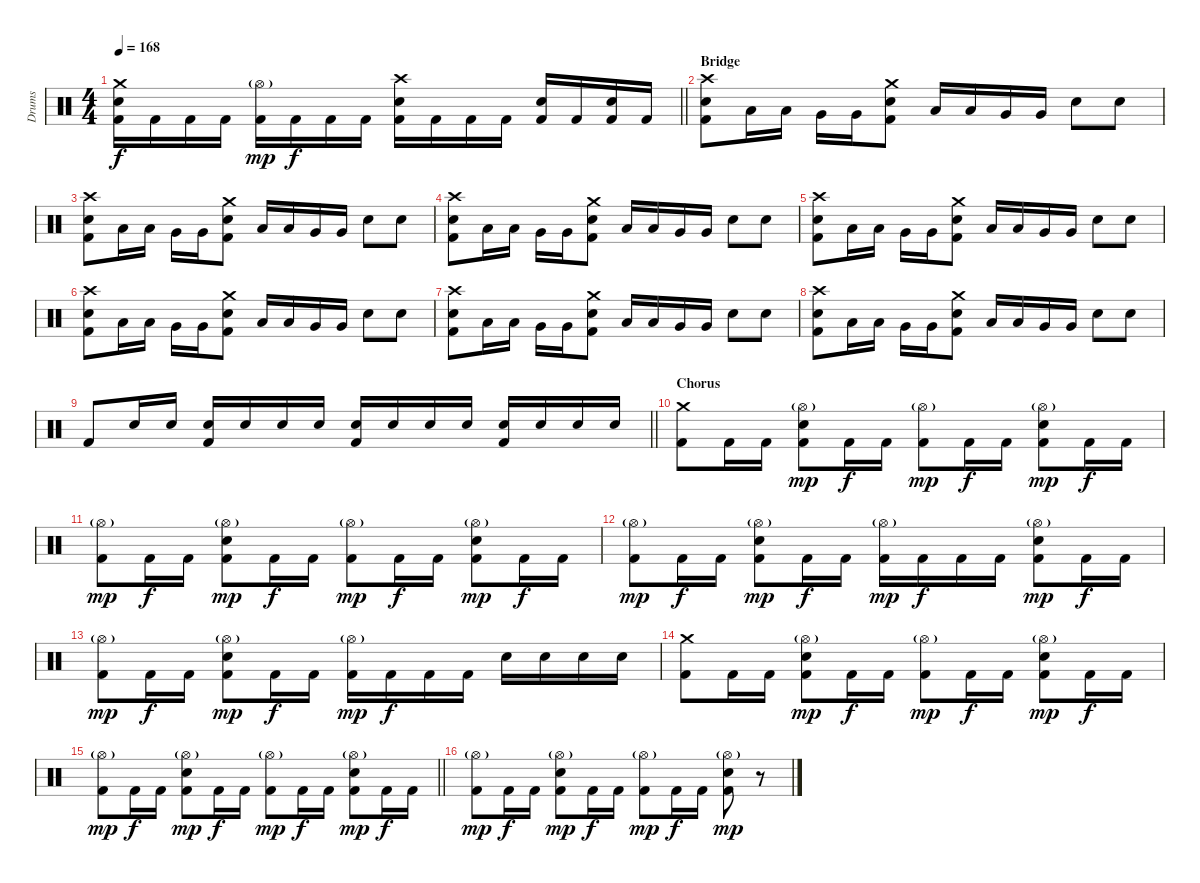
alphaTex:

\track ("Drums" "Drums") {instrument percussion}
\staff {score}
\articulation defaults
\ts (4 4)
\tempo 168
\clef neutral
\barLineRight lightlight
\ks c
("Crash medium (hit)" "Snare (hit) 2" "Kick (hit) 2").16{dy f} "Kick (hit) 2".16 "Kick (hit) 2".16 "Kick (hit) 2".16 ("Hi-Hat (open)"{g} "Kick (hit) 2").16{dy mp} "Kick (hit) 2".16{dy f} "Kick (hit) 2".16 "Kick (hit) 2".16 ("Crash high (hit)" "Snare (hit) 2" "Kick (hit) 2").16 "Kick (hit) 2".16 "Kick (hit) 2".16 "Kick (hit) 2".16 ("Snare (hit) 2" "Kick (hit) 2").16 "Kick (hit) 2".16 ("Snare (hit) 2" "Kick (hit) 2").16 "Kick (hit) 2".16 |
\section ("" "Bridge")
("Crash high (hit)" "Snare (hit) 2" "Kick (hit) 2").8 "Low Tom (hit)".16 "Low Tom (hit)".16 "Very Low Tom (hit)".16 "Very Low Tom (hit)".16 ("Crash medium (hit)" "Snare (hit) 2" "Kick (hit) 2").8 "Low Tom (hit)".16 "Low Tom (hit)".16 "Very Low Tom (hit)".16 "Very Low Tom (hit)".16 "Snare (hit) 2".8 "Snare (hit) 2".8 |
("Crash high (hit)" "Snare (hit) 2" "Kick (hit) 2").8 "Low Tom (hit)".16 "Low Tom (hit)".16 "Very Low Tom (hit)".16 "Very Low Tom (hit)".16 ("Crash medium (hit)" "Snare (hit) 2" "Kick (hit) 2").8 "Low Tom (hit)".16 "Low Tom (hit)".16 "Very Low Tom (hit)".16 "Very Low Tom (hit)".16 "Snare (hit) 2".8 "Snare (hit) 2".8 |
("Crash high (hit)" "Snare (hit) 2" "Kick (hit) 2").8 "Low Tom (hit)".16 "Low Tom (hit)".16 "Very Low Tom (hit)".16 "Very Low Tom (hit)".16 ("Crash medium (hit)" "Snare (hit) 2" "Kick (hit) 2").8 "Low Tom (hit)".16 "Low Tom (hit)".16 "Very Low Tom (hit)".16 "Very Low Tom (hit)".16 "Snare (hit) 2".8 "Snare (hit) 2".8 |
("Crash high (hit)" "Snare (hit) 2" "Kick (hit) 2").8 "Low Tom (hit)".16 "Low Tom (hit)".16 "Very Low Tom (hit)".16 "Very Low Tom (hit)".16 ("Crash medium (hit)" "Snare (hit) 2" "Kick (hit) 2").8 "Low Tom (hit)".16 "Low Tom (hit)".16 "Very Low Tom (hit)".16 "Very Low Tom (hit)".16 "Snare (hit) 2".8 "Snare (hit) 2".8 |
("Crash high (hit)" "Snare (hit) 2" "Kick (hit) 2").8 "Low Tom (hit)".16 "Low Tom (hit)".16 "Very Low Tom (hit)".16 "Very Low Tom (hit)".16 ("Crash medium (hit)" "Snare (hit) 2" "Kick (hit) 2").8 "Low Tom (hit)".16 "Low Tom (hit)".16 "Very Low Tom (hit)".16 "Very Low Tom (hit)".16 "Snare (hit) 2".8 "Snare (hit) 2".8 |
("Crash high (hit)" "Snare (hit) 2" "Kick (hit) 2").8 "Low Tom (hit)".16 "Low Tom (hit)".16 "Very Low Tom (hit)".16 "Very Low Tom (hit)".16 ("Crash medium (hit)" "Snare (hit) 2" "Kick (hit) 2").8 "Low Tom (hit)".16 "Low Tom (hit)".16 "Very Low Tom (hit)".16 "Very Low Tom (hit)".16 "Snare (hit) 2".8 "Snare (hit) 2".8 |
("Crash high (hit)" "Snare (hit) 2" "Kick (hit) 2").8 "Low Tom (hit)".16 "Low Tom (hit)".16 "Very Low Tom (hit)".16 "Very Low Tom (hit)".16 ("Crash medium (hit)" "Snare (hit) 2" "Kick (hit) 2").8 "Low Tom (hit)".16 "Low Tom (hit)".16 "Very Low Tom (hit)".16 "Very Low Tom (hit)".16 "Snare (hit) 2".8 "Snare (hit) 2".8 |
\barLineRight lightlight "Kick (hit) 2".8 "Snare (hit) 2".16 "Snare (hit) 2".16
("Snare (hit) 2" "Kick (hit) 2").16 "Snare (hit) 2".16 "Snare (hit) 2".16 "Snare (hit) 2".16 ("Snare (hit) 2" "Kick (hit) 2").16 "Snare (hit) 2".16 "Snare (hit) 2".16 "Snare (hit) 2".16 ("Snare (hit) 2" "Kick (hit) 2").16 "Snare (hit) 2".16 "Snare (hit) 2".16 "Snare (hit) 2".16 |
\section ("" "Chorus")
("Crash medium (hit)" "Kick (hit) 2").8 "Kick (hit) 2".16 "Kick (hit) 2".16 ("Snare (hit) 2" "Hi-Hat (open)"{g} "Kick (hit) 2").8{dy mp} "Kick (hit) 2".16{dy f} "Kick (hit) 2".16 ("Hi-Hat (open)"{g} "Kick (hit) 2").8{dy mp} "Kick (hit) 2".16{dy f} "Kick (hit) 2".16 ("Snare (hit) 2" "Hi-Hat (open)"{g} "Kick (hit) 2").8{dy mp} "Kick (hit) 2".16{dy f} "Kick (hit) 2".16 |
("Hi-Hat (open)"{g} "Kick (hit) 2").8{dy mp} "Kick (hit) 2".16{dy f} "Kick (hit) 2".16 ("Snare (hit) 2" "Hi-Hat (open)"{g} "Kick (hit) 2").8{dy mp} "Kick (hit) 2".16{dy f} "Kick (hit) 2".16 ("Hi-Hat (open)"{g} "Kick (hit) 2").8{dy mp} "Kick (hit) 2".16{dy f} "Kick (hit) 2".16 ("Snare (hit) 2" "Hi-Hat (open)"{g} "Kick (hit) 2").8{dy mp} "Kick (hit) 2".16{dy f} "Kick (hit) 2".16 |
("Hi-Hat (open)"{g} "Kick (hit) 2").8{dy mp} "Kick (hit) 2".16{dy f} "Kick (hit) 2".16 ("Snare (hit) 2" "Hi-Hat (open)"{g} "Kick (hit) 2").8{dy mp} "Kick (hit) 2".16{dy f} "Kick (hit) 2".16 ("Hi-Hat (open)"{g} "Kick (hit) 2").16{dy mp} "Kick (hit) 2".16{dy f} "Kick (hit) 2".16 "Kick (hit) 2".16 ("Snare (hit) 2" "Hi-Hat (open)"{g} "Kick (hit) 2").8{dy mp} "Kick (hit) 2".16{dy f} "Kick (hit) 2".16 |
("Hi-Hat (open)"{g} "Kick (hit) 2").8{dy mp} "Kick (hit) 2".16{dy f} "Kick (hit) 2".16 ("Snare (hit) 2" "Hi-Hat (open)"{g} "Kick (hit) 2").8{dy mp} "Kick (hit) 2".16{dy f} "Kick (hit) 2".16 ("Hi-Hat (open)"{g} "Kick (hit) 2").16{dy mp} "Kick (hit) 2".16{dy f} "Kick (hit) 2".16 "Kick (hit) 2".16 "Snare (hit) 2".16 "Snare (hit) 2".16 "Snare (hit) 2".16 "Snare (hit) 2".16 |
("Crash medium (hit)" "Kick (hit) 2").8 "Kick (hit) 2".16 "Kick (hit) 2".16 ("Snare (hit) 2" "Hi-Hat (open)"{g} "Kick (hit) 2").8{dy mp} "Kick (hit) 2".16{dy f} "Kick (hit) 2".16 ("Hi-Hat (open)"{g} "Kick (hit) 2").8{dy mp} "Kick (hit) 2".16{dy f} "Kick (hit) 2".16 ("Snare (hit) 2" "Hi-Hat (open)"{g} "Kick (hit) 2").8{dy mp} "Kick (hit) 2".16{dy f} "Kick (hit) 2".16 |
\barLineRight lightlight
("Hi-Hat (open)"{g} "Kick (hit) 2").8{dy mp} "Kick (hit) 2".16{dy f} "Kick (hit) 2".16 ("Snare (hit) 2" "Hi-Hat (open)"{g} "Kick (hit) 2").8{dy mp} "Kick (hit) 2".16{dy f} "Kick (hit) 2".16 ("Hi-Hat (open)"{g} "Kick (hit) 2").8{dy mp} "Kick (hit) 2".16{dy f} "Kick (hit) 2".16 ("Snare (hit) 2" "Hi-Hat (open)"{g} "Kick (hit) 2").8{dy mp} "Kick (hit) 2".16{dy f} "Kick (hit) 2".16 |
("Hi-Hat (open)"{g} "Kick (hit) 2").8{dy mp} "Kick (hit) 2".16{dy f} "Kick (hit) 2".16 ("Snare (hit) 2" "Hi-Hat (open)"{g} "Kick (hit) 2").8{dy mp} "Kick (hit) 2".16{dy f} "Kick (hit) 2".16 ("Hi-Hat (open)"{g} "Kick (hit) 2").8{dy mp} "Kick (hit) 2".16{dy f} "Kick (hit) 2".16 ("Snare (hit) 2" "Hi-Hat (open)"{g} "Kick (hit) 2").8{dy mp} r.8
